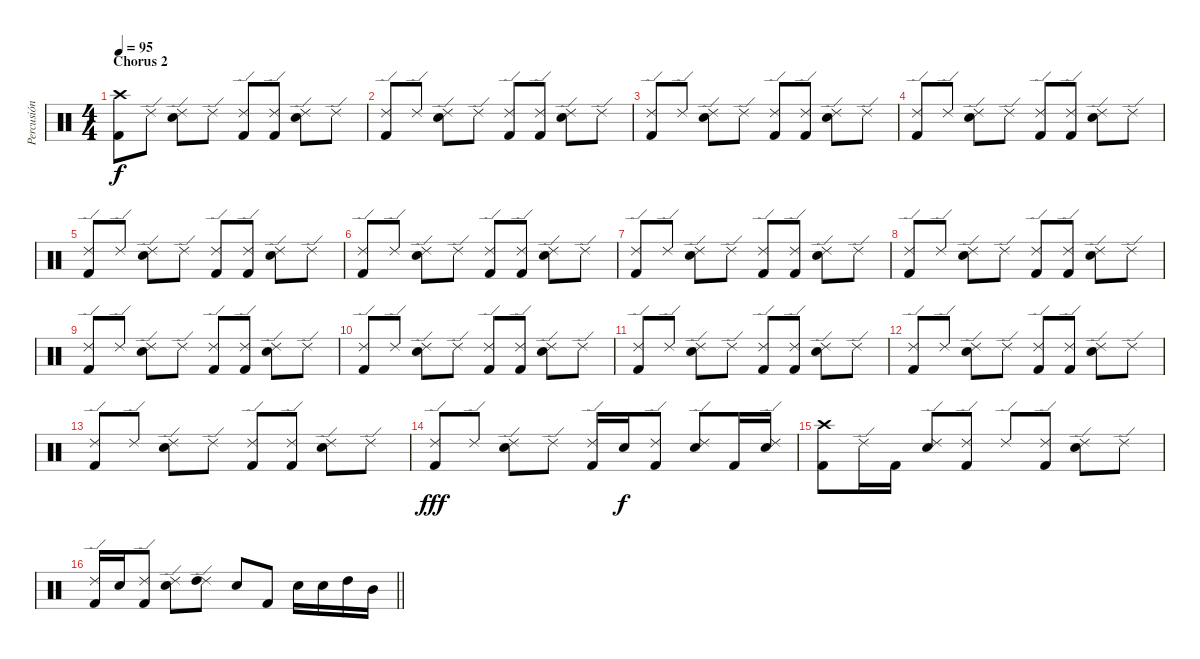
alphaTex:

\track ("Percusión" "Percusión") {instrument percussion}
\staff {score}
\articulation defaults
\ts (4 4)
\section ("" "Chorus 2")
\tempo 95
\clef neutral
\ks c
("Crash high (hit)" "Kick (hit) 2").8{dy f} "Ride (edge) 2".8 ("Ride (edge) 2" "Electric Snare (hit)").8 "Ride (edge) 2".8 ("Ride (edge) 2" "Kick (hit) 2").8 ("Ride (edge) 2" "Kick (hit) 2").8 ("Ride (edge) 2" "Electric Snare (hit)").8 "Ride (edge) 2".8 |
("Ride (edge) 2" "Kick (hit) 2").8 "Ride (edge) 2".8 ("Ride (edge) 2" "Electric Snare (hit)").8 "Ride (edge) 2".8 ("Ride (edge) 2" "Kick (hit) 2").8 ("Ride (edge) 2" "Kick (hit) 2").8 ("Ride (edge) 2" "Electric Snare (hit)").8 "Ride (edge) 2".8 |
("Ride (edge) 2" "Kick (hit) 2").8 "Ride (edge) 2".8 ("Ride (edge) 2" "Electric Snare (hit)").8 "Ride (edge) 2".8 ("Ride (edge) 2" "Kick (hit) 2").8 ("Ride (edge) 2" "Kick (hit) 2").8 ("Ride (edge) 2" "Electric Snare (hit)").8 "Ride (edge) 2".8 |
("Ride (edge) 2" "Kick (hit) 2").8 "Ride (edge) 2".8 ("Ride (edge) 2" "Electric Snare (hit)").8 "Ride (edge) 2".8 ("Ride (edge) 2" "Kick (hit) 2").8 ("Ride (edge) 2" "Kick (hit) 2").8 ("Ride (edge) 2" "Electric Snare (hit)").8 "Ride (edge) 2".8 |
("Ride (edge) 2" "Kick (hit) 2").8 "Ride (edge) 2".8 ("Ride (edge) 2" "Electric Snare (hit)").8 "Ride (edge) 2".8 ("Ride (edge) 2" "Kick (hit) 2").8 ("Ride (edge) 2" "Kick (hit) 2").8 ("Ride (edge) 2" "Electric Snare (hit)").8 "Ride (edge) 2".8 |
("Ride (edge) 2" "Kick (hit) 2").8 "Ride (edge) 2".8 ("Ride (edge) 2" "Electric Snare (hit)").8 "Ride (edge) 2".8 ("Ride (edge) 2" "Kick (hit) 2").8 ("Ride (edge) 2" "Kick (hit) 2").8 ("Ride (edge) 2" "Electric Snare (hit)").8 "Ride (edge) 2".8 |
("Ride (edge) 2" "Kick (hit) 2").8 "Ride (edge) 2".8 ("Ride (edge) 2" "Electric Snare (hit)").8 "Ride (edge) 2".8 ("Ride (edge) 2" "Kick (hit) 2").8 ("Ride (edge) 2" "Kick (hit) 2").8 ("Ride (edge) 2" "Electric Snare (hit)").8 "Ride (edge) 2".8 |
("Ride (edge) 2" "Kick (hit) 2").8 "Ride (edge) 2".8 ("Ride (edge) 2" "Electric Snare (hit)").8 "Ride (edge) 2".8 ("Ride (edge) 2" "Kick (hit) 2").8 ("Ride (edge) 2" "Kick (hit) 2").8 ("Ride (edge) 2" "Electric Snare (hit)").8 "Ride (edge) 2".8 |
("Ride (edge) 2" "Kick (hit) 2").8 "Ride (edge) 2".8 ("Ride (edge) 2" "Electric Snare (hit)").8 "Ride (edge) 2".8 ("Ride (edge) 2" "Kick (hit) 2").8 ("Ride (edge) 2" "Kick (hit) 2").8 ("Ride (edge) 2" "Electric Snare (hit)").8 "Ride (edge) 2".8 |
("Ride (edge) 2" "Kick (hit) 2").8 "Ride (edge) 2".8 ("Ride (edge) 2" "Electric Snare (hit)").8 "Ride (edge) 2".8 ("Ride (edge) 2" "Kick (hit) 2").8 ("Ride (edge) 2" "Kick (hit) 2").8 ("Ride (edge) 2" "Electric Snare (hit)").8 "Ride (edge) 2".8 |
("Ride (edge) 2" "Kick (hit) 2").8 "Ride (edge) 2".8 ("Ride (edge) 2" "Electric Snare (hit)").8 "Ride (edge) 2".8 ("Ride (edge) 2" "Kick (hit) 2").8 ("Ride (edge) 2" "Kick (hit) 2").8 ("Ride (edge) 2" "Electric Snare (hit)").8 "Ride (edge) 2".8 |
("Ride (edge) 2" "Kick (hit) 2").8 "Ride (edge) 2".8 ("Ride (edge) 2" "Electric Snare (hit)").8 "Ride (edge) 2".8 ("Ride (edge) 2" "Kick (hit) 2").8 ("Ride (edge) 2" "Kick (hit) 2").8 ("Ride (edge) 2" "Electric Snare (hit)").8 "Ride (edge) 2".8 |
("Ride (edge) 2" "Kick (hit) 2").8 "Ride (edge) 2".8 ("Ride (edge) 2" "Electric Snare (hit)").8 "Ride (edge) 2".8 ("Ride (edge) 2" "Kick (hit) 2").8 ("Ride (edge) 2" "Kick (hit) 2").8 ("Ride (edge) 2" "Electric Snare (hit)").8 "Ride (edge) 2".8 |
("Ride (edge) 2" "Kick (hit) 2").8{dy fff} "Ride (edge) 2".8 ("Ride (edge) 2" "Electric Snare (hit)").8 "Ride (edge) 2".8 ("Ride (edge) 2" "Kick (hit) 2").16 "Electric Snare (hit)".16{dy f} ("Ride (edge) 2" "Kick (hit) 2").8 ("Ride (edge) 2" "Electric Snare (hit)").8 "Kick (hit) 2".16 ("Ride (edge) 2" "Electric Snare (hit)").16 |
("Crash high (hit)" "Kick (hit) 2").8 "Ride (edge) 2".16 "Kick (hit) 2".16 ("Ride (edge) 2" "Electric Snare (hit)").8 ("Ride (edge) 2" "Kick (hit) 2").8 "Ride (edge) 2".8 ("Ride (edge) 2" "Kick (hit) 2").8 ("Ride (edge) 2" "Electric Snare (hit)").8 "Ride (edge) 2".8 |
\barLineRight lightlight
("Ride (edge) 2" "Kick (hit) 2").16 "Electric Snare (hit)".16 ("Ride (edge) 2" "Kick (hit) 2").8 ("Ride (edge) 2" "Electric Snare (hit)").8 ("Ride (edge) 2" "High Tom (hit)").8 "Electric Snare (hit)".8 "Kick (hit) 2".8 "Electric Snare (hit)".16 "Electric Snare (hit)".16 "High Tom (hit)".16 "Mid Tom (hit)".16
